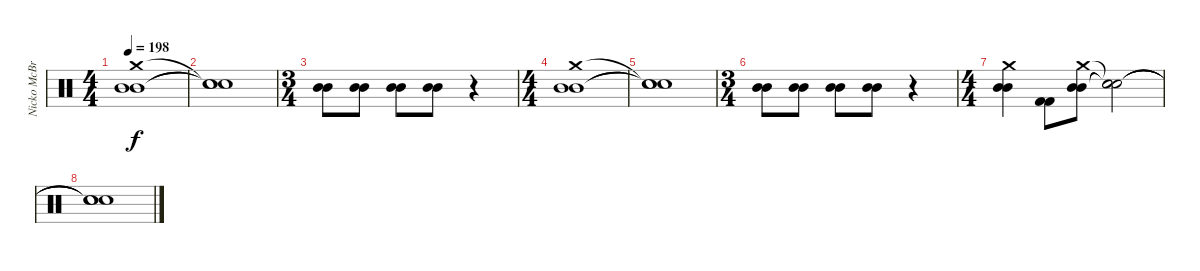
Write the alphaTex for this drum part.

\track ("Nicko McBrain" "Nicko McBr") {instrument percussion}
\staff {score}
\articulation defaults
\ts (4 4)
\tempo 198
\clef neutral
\ks c
("Crash medium (hit)" "Mid Tom (hit)" "Mid Tom (hit)").1{dy f} |
("Snare (hit)"{t} "Snare (hit)"{t} "Snare (hit)"{t}).1 |
\ts (3 4)
("Mid Tom (hit)" "Mid Tom (hit)").8 ("Mid Tom (hit)" "Mid Tom (hit)").8 ("Mid Tom (hit)" "Mid Tom (hit)").8 ("Mid Tom (hit)" "Mid Tom (hit)").8 r.4 |
\ts (4 4)
("Crash medium (hit)" "Mid Tom (hit)" "Mid Tom (hit)").1 |
("Snare (hit)"{t} "Snare (hit)"{t} "Snare (hit)"{t}).1 |
\ts (3 4)
("Mid Tom (hit)" "Mid Tom (hit)").8 ("Mid Tom (hit)" "Mid Tom (hit)").8 ("Mid Tom (hit)" "Mid Tom (hit)").8 ("Mid Tom (hit)" "Mid Tom (hit)").8 r.4 |
\ts (4 4)
("Crash medium (hit)" "Mid Tom (hit)" "Mid Tom (hit)").4 ("Kick (hit) 2" "Kick (hit) 2").8 ("Crash medium (hit)" "Mid Tom (hit)" "Mid Tom (hit)").8 ("Snare (hit)"{t} "Snare (hit)"{t} "Snare (hit)"{t}).2 |
("Snare (hit)"{t} "Snare (hit)"{t} "Snare (hit)"{t}).1
